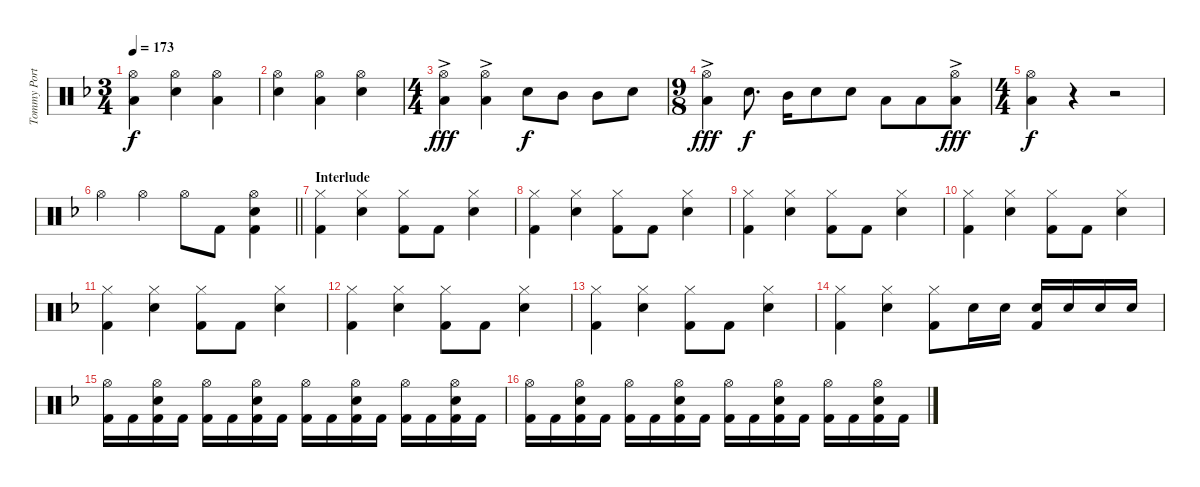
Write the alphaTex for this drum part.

\track ("Tommy Portimo - Drums" "Tommy Port") {instrument percussion}
\staff {score}
\articulation defaults
\ts (3 4)
\tempo 173
\clef neutral
\ks dminor
("Low Floor Tom (hit)" "Hi-Hat (open)").4{dy f} ("Electric Snare (hit)" "Hi-Hat (open)").4 ("Low Floor Tom (hit)" "Hi-Hat (open)").4 |
("Electric Snare (hit)" "Hi-Hat (open)").4 ("Low Floor Tom (hit)" "Hi-Hat (open)").4 ("Electric Snare (hit)" "Hi-Hat (open)").4 |
\ts (4 4)
("Low Floor Tom (hit)"{ac} "Hi-Hat (open)").4{dy fff} ("Low Floor Tom (hit)"{ac} "Hi-Hat (open)").4 "Electric Snare (hit)".8{dy f} "Mid Tom (hit)".8 "Mid Tom (hit)".8 "Electric Snare (hit)".8 |
\ts (9 8)
("Low Floor Tom (hit)" "Hi-Hat (open)"{ac}).4{dy fff} "Electric Snare (hit)".8{d dy f} "Mid Tom (hit)".16 "Electric Snare (hit)".8 "Electric Snare (hit)".8 "Low Tom (hit)".8 "Low Tom (hit)".8 ("Low Floor Tom (hit)"{ac} "Hi-Hat (open)").8{dy fff} |
\ts (4 4)
("Low Floor Tom (hit)" "Hi-Hat (open)").4{dy f} r.4 r.2 |
\barLineRight lightlight "Hi-Hat (open)".4 "Hi-Hat (open)".4 "Hi-Hat (open)".8 "Kick (hit) 2".8
("Hi-Hat (open)" "Electric Snare (hit)" "Kick (hit) 2").4 |
\section ("" "Interlude")
("Kick (hit) 2" "Hi-Hat (closed)").4 ("Electric Snare (hit)" "Hi-Hat (closed)").4 ("Kick (hit) 2" "Hi-Hat (closed)").8 "Kick (hit) 2".8 ("Electric Snare (hit)" "Hi-Hat (closed)").4 |
("Kick (hit) 2" "Hi-Hat (closed)").4 ("Electric Snare (hit)" "Hi-Hat (closed)").4 ("Kick (hit) 2" "Hi-Hat (closed)").8 "Kick (hit) 2".8 ("Electric Snare (hit)" "Hi-Hat (closed)").4 |
("Kick (hit) 2" "Hi-Hat (closed)").4 ("Electric Snare (hit)" "Hi-Hat (closed)").4 ("Kick (hit) 2" "Hi-Hat (closed)").8 "Kick (hit) 2".8 ("Electric Snare (hit)" "Hi-Hat (closed)").4 |
("Kick (hit) 2" "Hi-Hat (closed)").4 ("Electric Snare (hit)" "Hi-Hat (closed)").4 ("Kick (hit) 2" "Hi-Hat (closed)").8 "Kick (hit) 2".8 ("Electric Snare (hit)" "Hi-Hat (closed)").4 |
("Kick (hit) 2" "Hi-Hat (closed)").4 ("Electric Snare (hit)" "Hi-Hat (closed)").4 ("Kick (hit) 2" "Hi-Hat (closed)").8 "Kick (hit) 2".8 ("Electric Snare (hit)" "Hi-Hat (closed)").4 |
("Kick (hit) 2" "Hi-Hat (closed)").4 ("Electric Snare (hit)" "Hi-Hat (closed)").4 ("Kick (hit) 2" "Hi-Hat (closed)").8 "Kick (hit) 2".8 ("Electric Snare (hit)" "Hi-Hat (closed)").4 |
("Kick (hit) 2" "Hi-Hat (closed)").4 ("Electric Snare (hit)" "Hi-Hat (closed)").4 ("Kick (hit) 2" "Hi-Hat (closed)").8 "Kick (hit) 2".8 ("Electric Snare (hit)" "Hi-Hat (closed)").4 |
("Kick (hit) 2" "Hi-Hat (closed)").4 ("Electric Snare (hit)" "Hi-Hat (closed)").4 ("Kick (hit) 2" "Hi-Hat (closed)").8 "Electric Snare (hit)".16 "Electric Snare (hit)".16 ("Kick (hit) 2" "Electric Snare (hit)").16 "Electric Snare (hit)".16 "Electric Snare (hit)".16 "Electric Snare (hit)".16 |
("Kick (hit) 2" "Hi-Hat (open)").16 "Kick (hit) 2".16 ("Kick (hit) 2" "Electric Snare (hit)" "Hi-Hat (open)").16 "Kick (hit) 2".16 ("Kick (hit) 2" "Hi-Hat (open)").16 "Kick (hit) 2".16 ("Kick (hit) 2" "Electric Snare (hit)" "Hi-Hat (open)").16 "Kick (hit) 2".16 ("Kick (hit) 2" "Hi-Hat (open)").16 "Kick (hit) 2".16 ("Kick (hit) 2" "Electric Snare (hit)" "Hi-Hat (open)").16 "Kick (hit) 2".16 ("Kick (hit) 2" "Hi-Hat (open)").16 "Kick (hit) 2".16 ("Kick (hit) 2" "Electric Snare (hit)" "Hi-Hat (open)").16 "Kick (hit) 2".16 |
("Kick (hit) 2" "Hi-Hat (open)").16 "Kick (hit) 2".16 ("Kick (hit) 2" "Electric Snare (hit)" "Hi-Hat (open)").16 "Kick (hit) 2".16 ("Kick (hit) 2" "Hi-Hat (open)").16 "Kick (hit) 2".16 ("Kick (hit) 2" "Electric Snare (hit)" "Hi-Hat (open)").16 "Kick (hit) 2".16 ("Kick (hit) 2" "Hi-Hat (open)").16 "Kick (hit) 2".16 ("Kick (hit) 2" "Electric Snare (hit)" "Hi-Hat (open)").16 "Kick (hit) 2".16 ("Kick (hit) 2" "Hi-Hat (open)").16 "Kick (hit) 2".16 ("Kick (hit) 2" "Electric Snare (hit)" "Hi-Hat (open)").16 "Kick (hit) 2".16
